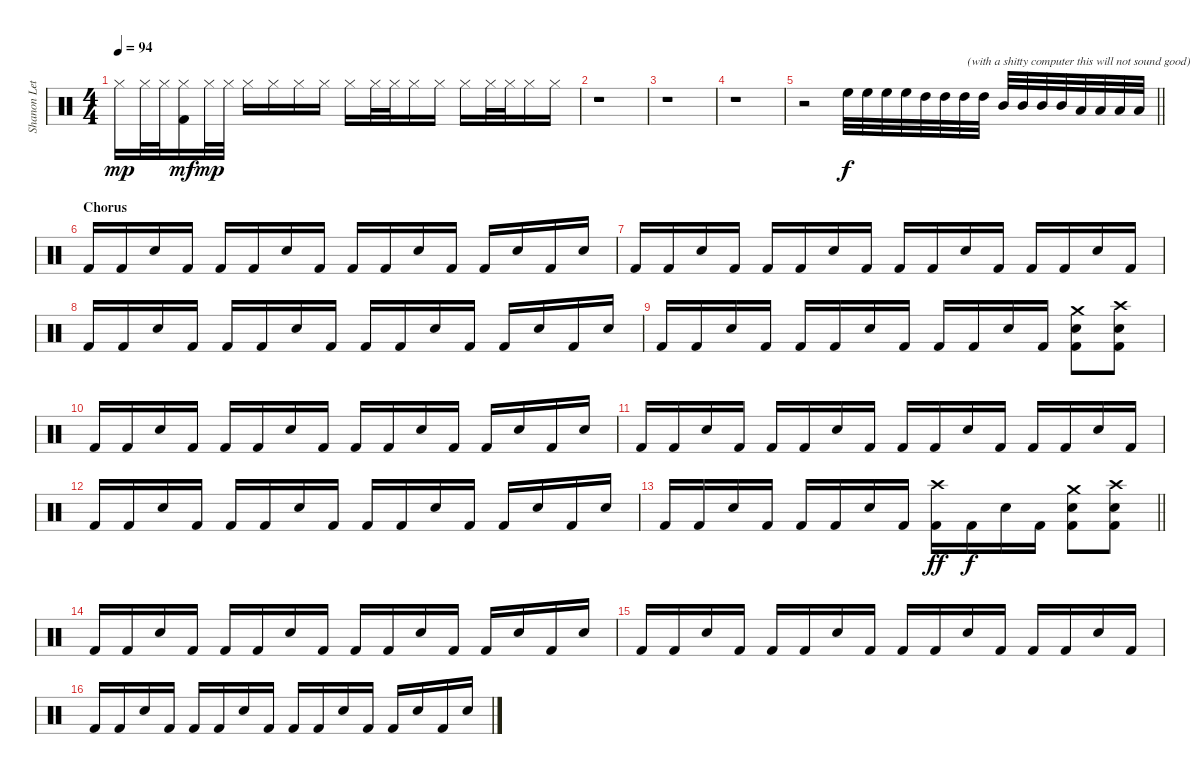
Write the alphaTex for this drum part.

\track ("Shanon Leto" "Shanon Let") {instrument percussion}
\staff {score}
\articulation defaults
\ts (4 4)
\tempo 94
\clef neutral
\ks c "Hi-Hat (closed)".16{dy mp} "Hi-Hat (closed)".32 "Hi-Hat (closed)".32
("Hi-Hat (closed)" "Kick (hit) 2").16{dy mf} "Hi-Hat (closed)".32{dy mp} "Hi-Hat (closed)".32 "Hi-Hat (closed)".16 "Hi-Hat (closed)".16 "Hi-Hat (closed)".16 "Hi-Hat (closed)".16 "Hi-Hat (closed)".16 "Hi-Hat (closed)".32 "Hi-Hat (closed)".32 "Hi-Hat (closed)".16 "Hi-Hat (closed)".16 "Hi-Hat (closed)".16 "Hi-Hat (closed)".32 "Hi-Hat (closed)".32 "Hi-Hat (closed)".16 "Hi-Hat (closed)".16 |
r.1 |
r.1 |
r.1 |
\barLineRight lightlight
r.2 "High Floor Tom (hit)".32{dy f} "High Floor Tom (hit)".32 "High Floor Tom (hit)".32 "High Floor Tom (hit)".32 "High Tom (hit)".32 "High Tom (hit)".32 "High Tom (hit)".32{txt " (with a shitty computer this will not sound good)"} "High Tom (hit)".32 "Mid Tom (hit)".32 "Mid Tom (hit)".32 "Mid Tom (hit)".32 "Mid Tom (hit)".32 "Low Tom (hit)".32 "Low Tom (hit)".32 "Low Tom (hit)".32 "Low Tom (hit)".32 |
\section ("" "Chorus")
"Kick (hit) 2".16 "Kick (hit) 2".16 "Snare (hit) 2".16 "Kick (hit) 2".16 "Kick (hit) 2".16 "Kick (hit) 2".16 "Snare (hit) 2".16 "Kick (hit) 2".16 "Kick (hit) 2".16 "Kick (hit) 2".16 "Snare (hit) 2".16 "Kick (hit) 2".16 "Kick (hit) 2".16 "Snare (hit) 2".16 "Kick (hit) 2".16 "Snare (hit) 2".16 |
"Kick (hit) 2".16 "Kick (hit) 2".16 "Snare (hit) 2".16 "Kick (hit) 2".16 "Kick (hit) 2".16 "Kick (hit) 2".16 "Snare (hit) 2".16 "Kick (hit) 2".16 "Kick (hit) 2".16 "Kick (hit) 2".16 "Snare (hit) 2".16 "Kick (hit) 2".16 "Kick (hit) 2".16 "Kick (hit) 2".16 "Snare (hit) 2".16 "Kick (hit) 2".16 |
"Kick (hit) 2".16 "Kick (hit) 2".16 "Snare (hit) 2".16 "Kick (hit) 2".16 "Kick (hit) 2".16 "Kick (hit) 2".16 "Snare (hit) 2".16 "Kick (hit) 2".16 "Kick (hit) 2".16 "Kick (hit) 2".16 "Snare (hit) 2".16 "Kick (hit) 2".16 "Kick (hit) 2".16 "Snare (hit) 2".16 "Kick (hit) 2".16 "Snare (hit) 2".16 |
"Kick (hit) 2".16 "Kick (hit) 2".16 "Snare (hit) 2".16 "Kick (hit) 2".16 "Kick (hit) 2".16 "Kick (hit) 2".16 "Snare (hit) 2".16 "Kick (hit) 2".16 "Kick (hit) 2".16 "Kick (hit) 2".16 "Snare (hit) 2".16 "Kick (hit) 2".16 ("Crash medium (hit)" "Snare (hit) 2" "Kick (hit) 2").8 ("Crash high (hit)" "Snare (hit) 2" "Kick (hit) 2").8 |
"Kick (hit) 2".16 "Kick (hit) 2".16 "Snare (hit) 2".16 "Kick (hit) 2".16 "Kick (hit) 2".16 "Kick (hit) 2".16 "Snare (hit) 2".16 "Kick (hit) 2".16 "Kick (hit) 2".16 "Kick (hit) 2".16 "Snare (hit) 2".16 "Kick (hit) 2".16 "Kick (hit) 2".16 "Snare (hit) 2".16 "Kick (hit) 2".16 "Snare (hit) 2".16 |
"Kick (hit) 2".16 "Kick (hit) 2".16 "Snare (hit) 2".16 "Kick (hit) 2".16 "Kick (hit) 2".16 "Kick (hit) 2".16 "Snare (hit) 2".16 "Kick (hit) 2".16 "Kick (hit) 2".16 "Kick (hit) 2".16 "Snare (hit) 2".16 "Kick (hit) 2".16 "Kick (hit) 2".16 "Kick (hit) 2".16 "Snare (hit) 2".16 "Kick (hit) 2".16 |
"Kick (hit) 2".16 "Kick (hit) 2".16 "Snare (hit) 2".16 "Kick (hit) 2".16 "Kick (hit) 2".16 "Kick (hit) 2".16 "Snare (hit) 2".16 "Kick (hit) 2".16 "Kick (hit) 2".16 "Kick (hit) 2".16 "Snare (hit) 2".16 "Kick (hit) 2".16 "Kick (hit) 2".16 "Snare (hit) 2".16 "Kick (hit) 2".16 "Snare (hit) 2".16 |
\barLineRight lightlight "Kick (hit) 2".16 "Kick (hit) 2".16 "Snare (hit) 2".16 "Kick (hit) 2".16 "Kick (hit) 2".16 "Kick (hit) 2".16 "Snare (hit) 2".16 "Kick (hit) 2".16
("Crash high (hit)" "Kick (hit) 2").16{dy ff} "Kick (hit) 2".16{dy f} "Snare (hit) 2".16 "Kick (hit) 2".16 ("Crash medium (hit)" "Snare (hit) 2" "Kick (hit) 2").8 ("Crash high (hit)" "Snare (hit) 2" "Kick (hit) 2").8 |
"Kick (hit) 2".16 "Kick (hit) 2".16 "Snare (hit) 2".16 "Kick (hit) 2".16 "Kick (hit) 2".16 "Kick (hit) 2".16 "Snare (hit) 2".16 "Kick (hit) 2".16 "Kick (hit) 2".16 "Kick (hit) 2".16 "Snare (hit) 2".16 "Kick (hit) 2".16 "Kick (hit) 2".16 "Snare (hit) 2".16 "Kick (hit) 2".16 "Snare (hit) 2".16 |
"Kick (hit) 2".16 "Kick (hit) 2".16 "Snare (hit) 2".16 "Kick (hit) 2".16 "Kick (hit) 2".16 "Kick (hit) 2".16 "Snare (hit) 2".16 "Kick (hit) 2".16 "Kick (hit) 2".16 "Kick (hit) 2".16 "Snare (hit) 2".16 "Kick (hit) 2".16 "Kick (hit) 2".16 "Kick (hit) 2".16 "Snare (hit) 2".16 "Kick (hit) 2".16 |
"Kick (hit) 2".16 "Kick (hit) 2".16 "Snare (hit) 2".16 "Kick (hit) 2".16 "Kick (hit) 2".16 "Kick (hit) 2".16 "Snare (hit) 2".16 "Kick (hit) 2".16 "Kick (hit) 2".16 "Kick (hit) 2".16 "Snare (hit) 2".16 "Kick (hit) 2".16 "Kick (hit) 2".16 "Snare (hit) 2".16 "Kick (hit) 2".16 "Snare (hit) 2".16
